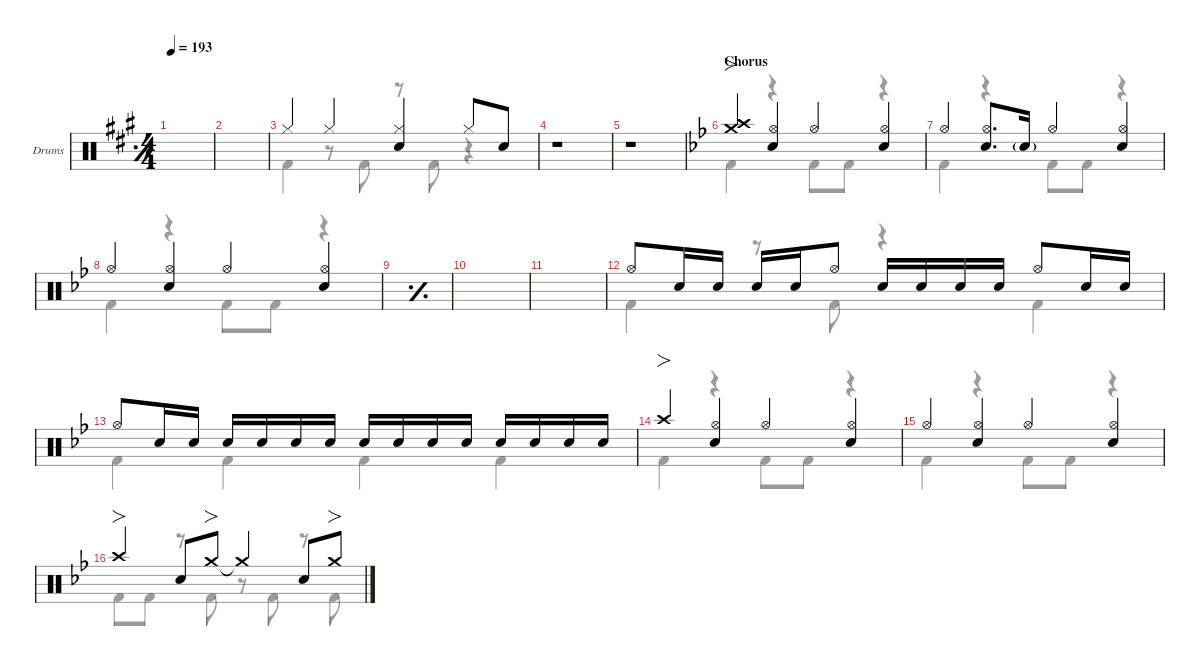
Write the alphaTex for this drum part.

\defaultSystemsLayout 4
\hideDynamics
\bracketExtendMode nobrackets
\firstSystemTrackNameOrientation horizontal
\track ("Drums" "Drums") {defaultSystemsLayout 4 instrument percussion}
\staff {score}
\articulation defaults
\voice
\ts (4 4)
\tempo 193
\clef neutral
\simile simple
\scale
0.244132
\ks a
|
\scale
0.244132 |
\simile none
\scale
0.244132 "Hi-Hat (closed)"{acc forcenatural}.4{dy f beam Up} "Hi-Hat (closed)"{acc forcenatural}.4{beam Up} ("Hi-Hat (closed)"{acc forcenatural} "Snare (hit) 2"{acc forcenatural}).4{beam Up} "Hi-Hat (closed)"{acc forcenatural}.8{beam Up} "Snare (hit) 2"{acc forcenatural}.8{beam Up} |
\scale
0.511737 r.1{beam Up} |
\scale
0.488263 r.1{beam Up} |
\section ("" "Chorus")
\scale
0.267605
\ks bb
("Crash high (hit)"{acc forcenatural} "Crash medium (hit)"{acc forcenatural}).4{fo beam Up} ("Hi-Hat (open)"{acc forcenatural} "Snare (hit) 2"{acc forcenatural}).4{beam Up} "Hi-Hat (open)"{acc forcenatural}.4{beam Up} ("Hi-Hat (open)"{acc forcenatural} "Snare (hit) 2"{acc forcenatural}).4{beam Up} |
\scale
0.244132 "Hi-Hat (open)"{acc forcenatural}.4{beam Up} ("Hi-Hat (open)"{acc forcenatural} "Snare (hit) 2"{acc forcenatural}).8{d beam Up} "Snare (hit) 2"{g acc forcenatural}.16{dy mf beam Up} "Hi-Hat (open)"{acc forcenatural}.4{dy f beam Up} ("Hi-Hat (open)"{acc forcenatural} "Snare (hit) 2"{acc forcenatural}).4{beam Up} |
\scale
0.244132 "Hi-Hat (open)"{acc forcenatural}.4{beam Up} ("Hi-Hat (open)"{acc forcenatural} "Snare (hit) 2"{acc forcenatural}).4{beam Up} "Hi-Hat (open)"{acc forcenatural}.4{beam Up} ("Hi-Hat (open)"{acc forcenatural} "Snare (hit) 2"{acc forcenatural}).4{beam Up} |
\simile simple
\scale
0.244132 |
\scale
0.267605 |
\scale
0.244132 |
\simile none
\scale
0.244132 "Hi-Hat (open)"{acc forcenatural}.8{beam Up} "Snare (hit) 2"{acc forcenatural}.16{beam Up} "Snare (hit) 2"{acc forcenatural}.16{beam Up beam split} "Snare (hit) 2"{acc forcenatural}.16{beam Up} "Snare (hit) 2"{acc forcenatural}.16{beam Up} "Hi-Hat (open)"{acc forcenatural}.8{beam Up} "Snare (hit) 2"{acc forcenatural}.16{beam Up beam merge} "Snare (hit) 2"{acc forcenatural}.16{beam Up beam merge} "Snare (hit) 2"{acc forcenatural}.16{beam Up beam merge} "Snare (hit) 2"{acc forcenatural}.16{beam Up beam split} "Hi-Hat (open)"{acc forcenatural}.8{beam Up} "Snare (hit) 2"{acc forcenatural}.16{beam Up beam merge} "Snare (hit) 2"{acc forcenatural}.16{beam Up} |
\scale
0.244132 "Hi-Hat (open)"{acc forcenatural}.8{beam Up} "Snare (hit) 2"{acc forcenatural}.16{beam Up beam merge} "Snare (hit) 2"{acc forcenatural}.16{beam Up beam split} "Snare (hit) 2"{acc forcenatural}.16{beam Up beam merge} "Snare (hit) 2"{acc forcenatural}.16{beam Up beam merge} "Snare (hit) 2"{acc forcenatural}.16{beam Up beam merge} "Snare (hit) 2"{acc forcenatural}.16{beam Up beam split} "Snare (hit) 2"{acc forcenatural}.16{beam Up beam merge} "Snare (hit) 2"{acc forcenatural}.16{beam Up beam merge} "Snare (hit) 2"{acc forcenatural}.16{beam Up beam merge} "Snare (hit) 2"{acc forcenatural}.16{beam Up beam split} "Snare (hit) 2"{acc forcenatural}.16{beam Up beam merge} "Snare (hit) 2"{acc forcenatural}.16{beam Up beam merge} "Snare (hit) 2"{acc forcenatural}.16{beam Up beam merge} "Snare (hit) 2"{acc forcenatural}.16{beam Up beam split} |
\scale
0.267605 "Crash high (hit)"{acc forcenatural}.4{fo beam Up} ("Hi-Hat (open)"{acc forcenatural} "Snare (hit) 2"{acc forcenatural}).4{beam Up} "Hi-Hat (open)"{acc forcenatural}.4{beam Up} ("Hi-Hat (open)"{acc forcenatural} "Snare (hit) 2"{acc forcenatural}).4{beam Up} |
\scale
0.244132 "Hi-Hat (open)"{acc forcenatural}.4{beam Up} ("Hi-Hat (open)"{acc forcenatural} "Snare (hit) 2"{acc forcenatural}).4{beam Up} "Hi-Hat (open)"{acc forcenatural}.4{beam Up} ("Hi-Hat (open)"{acc forcenatural} "Snare (hit) 2"{acc forcenatural}).4{beam Up} |
\scale
0.244132 "Crash high (hit)"{acc forcenatural}.4{fo beam Up} "Snare (hit) 2"{acc forcenatural}.8{beam Up} "Crash medium (hit)"{acc forcenatural}.8{fo beam Up} "Crash medium (hit)"{t acc forcenatural}.4{beam Up} "Snare (hit) 2"{acc forcenatural}.8{beam Up} "Crash medium (hit)"{acc forcenatural}.8{fo beam Up}
\voice
\clef neutral
\ottava regular
\simile simple
\scale
0.244132
\ks a
|
\scale
0.244132 |
\simile none
\scale
0.244132 "Kick (hit) 2"{acc forcenatural}.4{beam Down} r.8{beam Down} "Kick (hit) 2"{acc forcenatural}.8{beam Down} r.8{beam Down} "Kick (hit) 2"{acc forcenatural}.8{beam Down} r.4{beam Down} |
\scale
0.511737 r.1{beam Down} |
\scale
0.488263 r.1{beam Down} |
\scale
0.267605
\ks bb "Kick (hit) 2"{acc forcenatural}.4{beam Down}
r.4{beam Down} "Kick (hit) 2"{acc forcenatural}.8{beam Down} "Kick (hit) 2"{acc forcenatural}.8{beam Down} r.4{beam Down} |
\scale
0.244132 "Kick (hit) 2"{acc forcenatural}.4{beam Down} r.4{beam Down} "Kick (hit) 2"{acc forcenatural}.8{beam Down} "Kick (hit) 2"{acc forcenatural}.8{beam Down} r.4{beam Down} |
\scale
0.244132 "Kick (hit) 2"{acc forcenatural}.4{beam Down} r.4{beam Down} "Kick (hit) 2"{acc forcenatural}.8{beam Down} "Kick (hit) 2"{acc forcenatural}.8{beam Down} r.4{beam Down} |
\simile simple
\scale
0.244132 |
\scale
0.267605 |
\scale
0.244132 |
\simile none
\scale
0.244132 "Kick (hit) 2"{acc forcenatural}.4{beam Down} r.8{beam Down} "Kick (hit) 2"{acc forcenatural}.8{beam Down} r.4{beam Down} "Kick (hit) 2"{acc forcenatural}.4{beam Down} |
\scale
0.244132 "Kick (hit) 2"{acc forcenatural}.4{beam Down} "Kick (hit) 2"{acc forcenatural}.4{beam Down} "Kick (hit) 2"{acc forcenatural}.4{beam Down} "Kick (hit) 2"{acc forcenatural}.4{beam Down} |
\scale
0.267605 "Kick (hit) 2"{acc forcenatural}.4{beam Down} r.4{beam Down} "Kick (hit) 2"{acc forcenatural}.8{beam Down} "Kick (hit) 2"{acc forcenatural}.8{beam Down} r.4{beam Down} |
\scale
0.244132 "Kick (hit) 2"{acc forcenatural}.4{beam Down} r.4{beam Down} "Kick (hit) 2"{acc forcenatural}.8{beam Down} "Kick (hit) 2"{acc forcenatural}.8{beam Down} r.4{beam Down} |
\scale
0.244132 "Kick (hit) 2"{acc forcenatural}.8{beam Down} "Kick (hit) 2"{acc forcenatural}.8{beam Down} r.8{beam Down} "Kick (hit) 2"{acc forcenatural}.8{beam Down} r.8{beam Down} "Kick (hit) 2"{acc forcenatural}.8{beam Down} r.8{beam Down} "Kick (hit) 2"{acc forcenatural}.8{beam Down}
